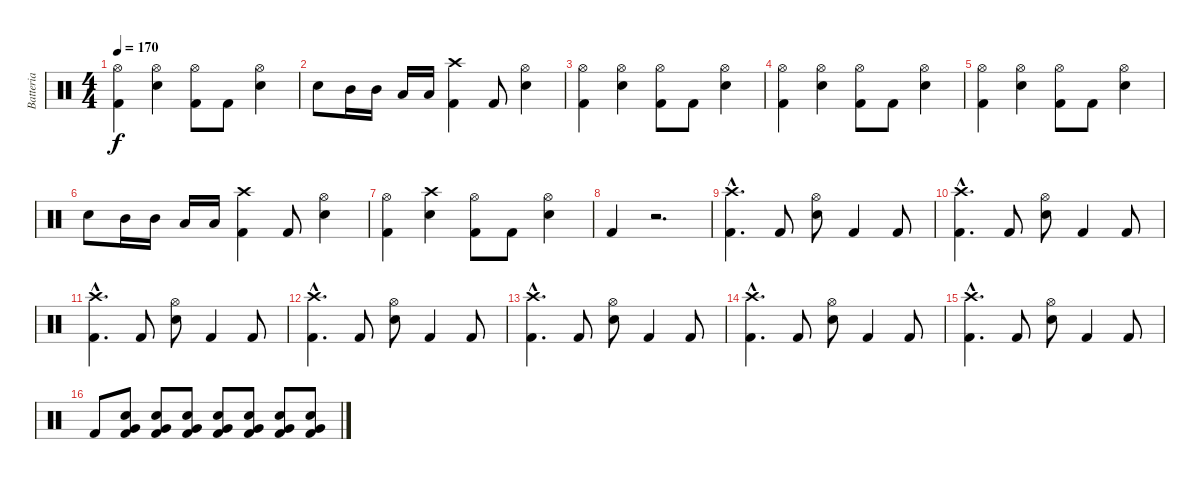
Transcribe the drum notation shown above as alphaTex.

\track ("Batteria" "Batteria") {instrument percussion}
\staff {score}
\articulation defaults
\ts (4 4)
\tempo 170
\clef neutral
\ks c
("Hi-Hat (open)" "Kick (hit) 2").4{dy f} ("Hi-Hat (open)" "Snare (hit) 2").4 ("Hi-Hat (open)" "Kick (hit) 2").8 "Kick (hit) 2".8 ("Hi-Hat (open)" "Snare (hit) 2").4 |
"Snare (hit) 2".8 "Mid Tom (hit)".16 "Mid Tom (hit)".16 "Low Tom (hit)".16 "Low Tom (hit)".16 ("Crash high (hit)" "Kick (hit) 2").4 "Kick (hit) 2".8 ("Hi-Hat (open)" "Snare (hit) 2").4 |
("Hi-Hat (open)" "Kick (hit) 2").4 ("Hi-Hat (open)" "Snare (hit) 2").4 ("Hi-Hat (open)" "Kick (hit) 2").8 "Kick (hit) 2".8 ("Hi-Hat (open)" "Snare (hit) 2").4 |
("Hi-Hat (open)" "Kick (hit) 2").4 ("Hi-Hat (open)" "Snare (hit) 2").4 ("Hi-Hat (open)" "Kick (hit) 2").8 "Kick (hit) 2".8 ("Hi-Hat (open)" "Snare (hit) 2").4 |
("Hi-Hat (open)" "Kick (hit) 2").4 ("Hi-Hat (open)" "Snare (hit) 2").4 ("Hi-Hat (open)" "Kick (hit) 2").8 "Kick (hit) 2".8 ("Hi-Hat (open)" "Snare (hit) 2").4 |
"Snare (hit) 2".8 "Mid Tom (hit)".16 "Mid Tom (hit)".16 "Low Tom (hit)".16 "Low Tom (hit)".16 ("Crash high (hit)" "Kick (hit) 2").4 "Kick (hit) 2".8 ("Hi-Hat (open)" "Snare (hit) 2").4 |
("Hi-Hat (open)" "Kick (hit) 2").4 ("Crash high (hit)" "Snare (hit) 2").4 ("Hi-Hat (open)" "Kick (hit) 2").8 "Kick (hit) 2".8 ("Hi-Hat (open)" "Snare (hit) 2").4 |
"Kick (hit) 2".4 r.2{d} |
("Crash high (hit)"{hac} "Kick (hit) 2"{hac}).4{d} "Kick (hit) 2".8 ("Hi-Hat (open)" "Snare (hit) 2").8 "Kick (hit) 2".4 "Kick (hit) 2".8 |
("Crash high (hit)"{hac} "Kick (hit) 2"{hac}).4{d} "Kick (hit) 2".8 ("Hi-Hat (open)" "Snare (hit) 2").8 "Kick (hit) 2".4 "Kick (hit) 2".8 |
("Crash high (hit)"{hac} "Kick (hit) 2"{hac}).4{d} "Kick (hit) 2".8 ("Hi-Hat (open)" "Snare (hit) 2").8 "Kick (hit) 2".4 "Kick (hit) 2".8 |
("Crash high (hit)"{hac} "Kick (hit) 2"{hac}).4{d} "Kick (hit) 2".8 ("Hi-Hat (open)" "Snare (hit) 2").8 "Kick (hit) 2".4 "Kick (hit) 2".8 |
("Crash high (hit)"{hac} "Kick (hit) 2"{hac}).4{d} "Kick (hit) 2".8 ("Hi-Hat (open)" "Snare (hit) 2").8 "Kick (hit) 2".4 "Kick (hit) 2".8 |
("Crash high (hit)"{hac} "Kick (hit) 2"{hac}).4{d} "Kick (hit) 2".8 ("Hi-Hat (open)" "Snare (hit) 2").8 "Kick (hit) 2".4 "Kick (hit) 2".8 |
("Crash high (hit)"{hac} "Kick (hit) 2"{hac}).4{d} "Kick (hit) 2".8 ("Hi-Hat (open)" "Snare (hit) 2").8 "Kick (hit) 2".4 "Kick (hit) 2".8 |
"Kick (hit) 2".8 ("Snare (hit) 2" "Very Low Tom (hit)" "Kick (hit) 2").8 ("Snare (hit) 2" "Very Low Tom (hit)" "Kick (hit) 2").8 ("Snare (hit) 2" "Very Low Tom (hit)" "Kick (hit) 2").8 ("Snare (hit) 2" "Very Low Tom (hit)" "Kick (hit) 2").8 ("Snare (hit) 2" "Very Low Tom (hit)" "Kick (hit) 2").8 ("Snare (hit) 2" "Very Low Tom (hit)" "Kick (hit) 2").8 ("Snare (hit) 2" "Very Low Tom (hit)" "Kick (hit) 2").8
